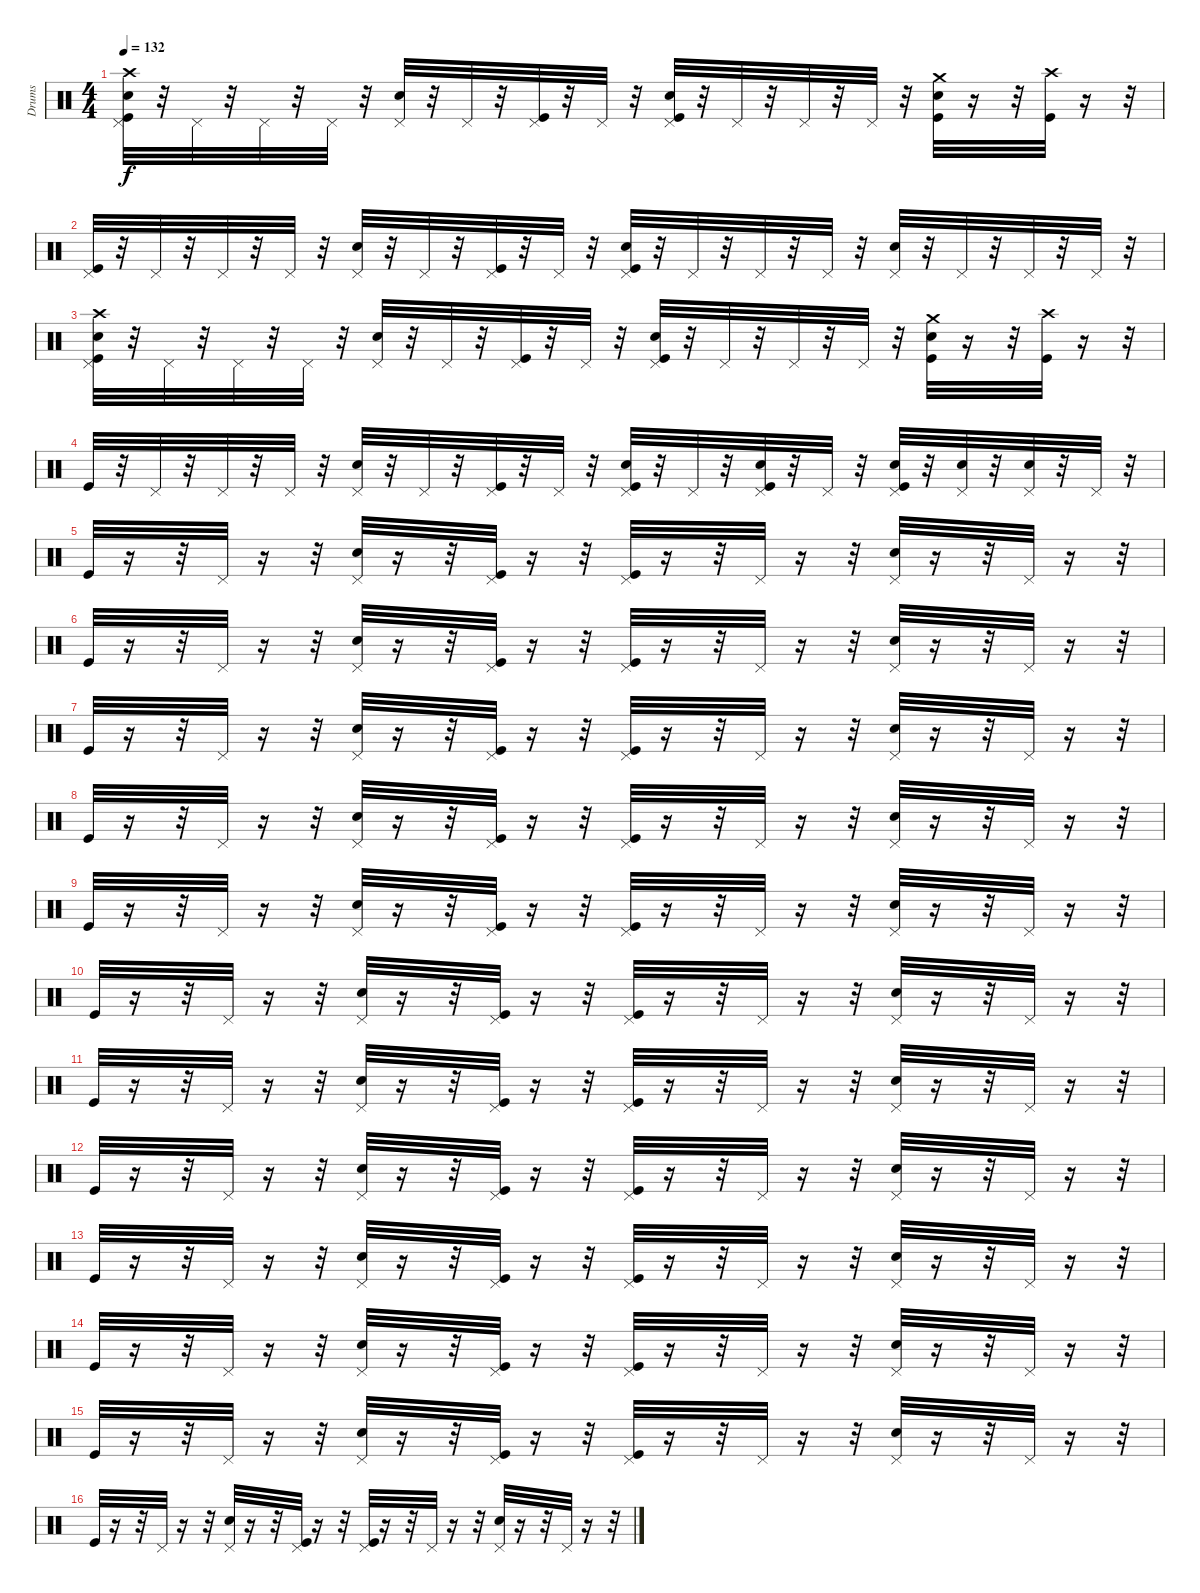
\track ("Drums" "Drums") {instrument percussion}
\staff {score}
\articulation defaults
\ts (4 4)
\tempo 132
\clef neutral
\ks c
("Crash high (hit)" "Electric Snare (hit)" "Pedal Hi-Hat (hit)" "Kick (hit)").32{dy f} r.32 "Pedal Hi-Hat (hit)".32 r.32 "Pedal Hi-Hat (hit)".32 r.32 "Pedal Hi-Hat (hit)".32 r.32 ("Pedal Hi-Hat (hit)" "Electric Snare (hit)").32 r.32 "Pedal Hi-Hat (hit)".32 r.32 ("Pedal Hi-Hat (hit)" "Kick (hit)").32 r.32 "Pedal Hi-Hat (hit)".32 r.32 ("Electric Snare (hit)" "Pedal Hi-Hat (hit)" "Kick (hit)").32 r.32 "Pedal Hi-Hat (hit)".32 r.32 "Pedal Hi-Hat (hit)".32 r.32 "Pedal Hi-Hat (hit)".32 r.32 ("Kick (hit)" "Crash medium (hit)" "Electric Snare (hit)").32 r.16 r.32 ("Kick (hit)" "Crash high (hit)").32 r.16 r.32 |
("Kick (hit)" "Pedal Hi-Hat (hit)").32 r.32 "Pedal Hi-Hat (hit)".32 r.32 "Pedal Hi-Hat (hit)".32 r.32 "Pedal Hi-Hat (hit)".32 r.32 ("Pedal Hi-Hat (hit)" "Electric Snare (hit)").32 r.32 "Pedal Hi-Hat (hit)".32 r.32 ("Pedal Hi-Hat (hit)" "Kick (hit)").32 r.32 "Pedal Hi-Hat (hit)".32 r.32 ("Electric Snare (hit)" "Pedal Hi-Hat (hit)" "Kick (hit)").32 r.32 "Pedal Hi-Hat (hit)".32 r.32 "Pedal Hi-Hat (hit)".32 r.32 "Pedal Hi-Hat (hit)".32 r.32 ("Pedal Hi-Hat (hit)" "Electric Snare (hit)").32 r.32 "Pedal Hi-Hat (hit)".32 r.32 "Pedal Hi-Hat (hit)".32 r.32 "Pedal Hi-Hat (hit)".32 r.32 |
("Crash high (hit)" "Electric Snare (hit)" "Kick (hit)" "Pedal Hi-Hat (hit)").32 r.32 "Pedal Hi-Hat (hit)".32 r.32 "Pedal Hi-Hat (hit)".32 r.32 "Pedal Hi-Hat (hit)".32 r.32 ("Pedal Hi-Hat (hit)" "Electric Snare (hit)").32 r.32 "Pedal Hi-Hat (hit)".32 r.32 ("Pedal Hi-Hat (hit)" "Kick (hit)").32 r.32 "Pedal Hi-Hat (hit)".32 r.32 ("Electric Snare (hit)" "Pedal Hi-Hat (hit)" "Kick (hit)").32 r.32 "Pedal Hi-Hat (hit)".32 r.32 "Pedal Hi-Hat (hit)".32 r.32 "Pedal Hi-Hat (hit)".32 r.32 ("Kick (hit)" "Crash medium (hit)" "Electric Snare (hit)").32 r.16 r.32 ("Kick (hit)" "Crash high (hit)").32 r.16 r.32 |
"Kick (hit)".32 r.32 "Pedal Hi-Hat (hit)".32 r.32 "Pedal Hi-Hat (hit)".32 r.32 "Pedal Hi-Hat (hit)".32 r.32 ("Pedal Hi-Hat (hit)" "Electric Snare (hit)").32 r.32 "Pedal Hi-Hat (hit)".32 r.32 ("Pedal Hi-Hat (hit)" "Kick (hit)").32 r.32 "Pedal Hi-Hat (hit)".32 r.32 ("Electric Snare (hit)" "Pedal Hi-Hat (hit)" "Kick (hit)").32 r.32 "Pedal Hi-Hat (hit)".32 r.32 ("Electric Snare (hit)" "Kick (hit)" "Pedal Hi-Hat (hit)").32 r.32 "Pedal Hi-Hat (hit)".32 r.32 ("Kick (hit)" "Pedal Hi-Hat (hit)" "Electric Snare (hit)").32 r.32 ("Electric Snare (hit)" "Pedal Hi-Hat (hit)").32 r.32 ("Electric Snare (hit)" "Pedal Hi-Hat (hit)").32 r.32 "Pedal Hi-Hat (hit)".32 r.32 |
"Kick (hit)".32 r.16 r.32 "Pedal Hi-Hat (hit)".32 r.16 r.32 ("Electric Snare (hit)" "Pedal Hi-Hat (hit)").32 r.16 r.32 ("Kick (hit)" "Pedal Hi-Hat (hit)").32 r.16 r.32 ("Kick (hit)" "Pedal Hi-Hat (hit)").32 r.16 r.32 "Pedal Hi-Hat (hit)".32 r.16 r.32 ("Electric Snare (hit)" "Pedal Hi-Hat (hit)").32 r.16 r.32 "Pedal Hi-Hat (hit)".32 r.16 r.32 |
"Kick (hit)".32 r.16 r.32 "Pedal Hi-Hat (hit)".32 r.16 r.32 ("Electric Snare (hit)" "Pedal Hi-Hat (hit)").32 r.16 r.32 ("Kick (hit)" "Pedal Hi-Hat (hit)").32 r.16 r.32 ("Kick (hit)" "Pedal Hi-Hat (hit)").32 r.16 r.32 "Pedal Hi-Hat (hit)".32 r.16 r.32 ("Electric Snare (hit)" "Pedal Hi-Hat (hit)").32 r.16 r.32 "Pedal Hi-Hat (hit)".32 r.16 r.32 |
"Kick (hit)".32 r.16 r.32 "Pedal Hi-Hat (hit)".32 r.16 r.32 ("Electric Snare (hit)" "Pedal Hi-Hat (hit)").32 r.16 r.32 ("Kick (hit)" "Pedal Hi-Hat (hit)").32 r.16 r.32 ("Kick (hit)" "Pedal Hi-Hat (hit)").32 r.16 r.32 "Pedal Hi-Hat (hit)".32 r.16 r.32 ("Electric Snare (hit)" "Pedal Hi-Hat (hit)").32 r.16 r.32 "Pedal Hi-Hat (hit)".32 r.16 r.32 |
"Kick (hit)".32 r.16 r.32 "Pedal Hi-Hat (hit)".32 r.16 r.32 ("Electric Snare (hit)" "Pedal Hi-Hat (hit)").32 r.16 r.32 ("Kick (hit)" "Pedal Hi-Hat (hit)").32 r.16 r.32 ("Kick (hit)" "Pedal Hi-Hat (hit)").32 r.16 r.32 "Pedal Hi-Hat (hit)".32 r.16 r.32 ("Electric Snare (hit)" "Pedal Hi-Hat (hit)").32 r.16 r.32 "Pedal Hi-Hat (hit)".32 r.16 r.32 |
"Kick (hit)".32 r.16 r.32 "Pedal Hi-Hat (hit)".32 r.16 r.32 ("Electric Snare (hit)" "Pedal Hi-Hat (hit)").32 r.16 r.32 ("Kick (hit)" "Pedal Hi-Hat (hit)").32 r.16 r.32 ("Kick (hit)" "Pedal Hi-Hat (hit)").32 r.16 r.32 "Pedal Hi-Hat (hit)".32 r.16 r.32 ("Electric Snare (hit)" "Pedal Hi-Hat (hit)").32 r.16 r.32 "Pedal Hi-Hat (hit)".32 r.16 r.32 |
"Kick (hit)".32 r.16 r.32 "Pedal Hi-Hat (hit)".32 r.16 r.32 ("Electric Snare (hit)" "Pedal Hi-Hat (hit)").32 r.16 r.32 ("Kick (hit)" "Pedal Hi-Hat (hit)").32 r.16 r.32 ("Kick (hit)" "Pedal Hi-Hat (hit)").32 r.16 r.32 "Pedal Hi-Hat (hit)".32 r.16 r.32 ("Electric Snare (hit)" "Pedal Hi-Hat (hit)").32 r.16 r.32 "Pedal Hi-Hat (hit)".32 r.16 r.32 |
"Kick (hit)".32 r.16 r.32 "Pedal Hi-Hat (hit)".32 r.16 r.32 ("Electric Snare (hit)" "Pedal Hi-Hat (hit)").32 r.16 r.32 ("Kick (hit)" "Pedal Hi-Hat (hit)").32 r.16 r.32 ("Kick (hit)" "Pedal Hi-Hat (hit)").32 r.16 r.32 "Pedal Hi-Hat (hit)".32 r.16 r.32 ("Electric Snare (hit)" "Pedal Hi-Hat (hit)").32 r.16 r.32 "Pedal Hi-Hat (hit)".32 r.16 r.32 |
"Kick (hit)".32 r.16 r.32 "Pedal Hi-Hat (hit)".32 r.16 r.32 ("Electric Snare (hit)" "Pedal Hi-Hat (hit)").32 r.16 r.32 ("Kick (hit)" "Pedal Hi-Hat (hit)").32 r.16 r.32 ("Kick (hit)" "Pedal Hi-Hat (hit)").32 r.16 r.32 "Pedal Hi-Hat (hit)".32 r.16 r.32 ("Electric Snare (hit)" "Pedal Hi-Hat (hit)").32 r.16 r.32 "Pedal Hi-Hat (hit)".32 r.16 r.32 |
"Kick (hit)".32 r.16 r.32 "Pedal Hi-Hat (hit)".32 r.16 r.32 ("Electric Snare (hit)" "Pedal Hi-Hat (hit)").32 r.16 r.32 ("Kick (hit)" "Pedal Hi-Hat (hit)").32 r.16 r.32 ("Kick (hit)" "Pedal Hi-Hat (hit)").32 r.16 r.32 "Pedal Hi-Hat (hit)".32 r.16 r.32 ("Electric Snare (hit)" "Pedal Hi-Hat (hit)").32 r.16 r.32 "Pedal Hi-Hat (hit)".32 r.16 r.32 |
"Kick (hit)".32 r.16 r.32 "Pedal Hi-Hat (hit)".32 r.16 r.32 ("Electric Snare (hit)" "Pedal Hi-Hat (hit)").32 r.16 r.32 ("Kick (hit)" "Pedal Hi-Hat (hit)").32 r.16 r.32 ("Kick (hit)" "Pedal Hi-Hat (hit)").32 r.16 r.32 "Pedal Hi-Hat (hit)".32 r.16 r.32 ("Electric Snare (hit)" "Pedal Hi-Hat (hit)").32 r.16 r.32 "Pedal Hi-Hat (hit)".32 r.16 r.32 |
"Kick (hit)".32 r.16 r.32 "Pedal Hi-Hat (hit)".32 r.16 r.32 ("Electric Snare (hit)" "Pedal Hi-Hat (hit)").32 r.16 r.32 ("Kick (hit)" "Pedal Hi-Hat (hit)").32 r.16 r.32 ("Kick (hit)" "Pedal Hi-Hat (hit)").32 r.16 r.32 "Pedal Hi-Hat (hit)".32 r.16 r.32 ("Electric Snare (hit)" "Pedal Hi-Hat (hit)").32 r.16 r.32 "Pedal Hi-Hat (hit)".32 r.16 r.32 |
"Kick (hit)".32 r.16 r.32 "Pedal Hi-Hat (hit)".32 r.16 r.32 ("Electric Snare (hit)" "Pedal Hi-Hat (hit)").32 r.16 r.32 ("Kick (hit)" "Pedal Hi-Hat (hit)").32 r.16 r.32 ("Kick (hit)" "Pedal Hi-Hat (hit)").32 r.16 r.32 "Pedal Hi-Hat (hit)".32 r.16 r.32 ("Electric Snare (hit)" "Pedal Hi-Hat (hit)").32 r.16 r.32 "Pedal Hi-Hat (hit)".32 r.16 r.32
